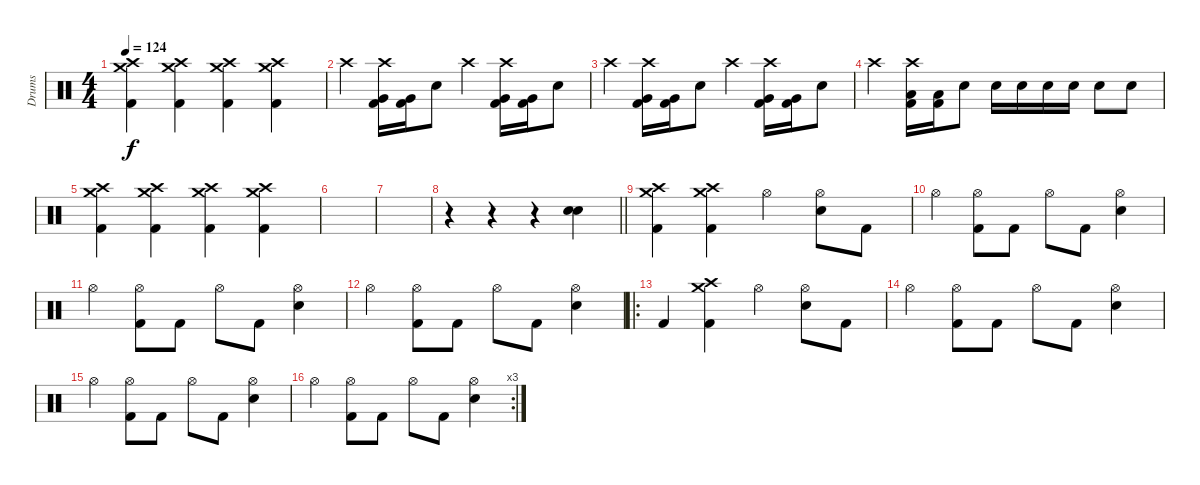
\track ("Drums" "Drums") {instrument percussion}
\staff {score}
\articulation defaults
\ts (4 4)
\tempo 124
\clef neutral
\ks c
("Crash medium (hit)" "Crash high (hit)" "Kick (hit) 2").4{dy f} ("Crash medium (hit)" "Crash high (hit)" "Kick (hit) 2").4 ("Crash medium (hit)" "Crash high (hit)" "Kick (hit) 2").4 ("Crash medium (hit)" "Crash high (hit)" "Kick (hit) 2").4 |
"Crash high (hit)".4 ("Kick (hit) 2" "Very Low Tom (hit)" "Crash high (hit)").16 ("Very Low Tom (hit)" "Kick (hit) 2").16 "Electric Snare (hit)".8 "Crash high (hit)".4 ("Kick (hit) 2" "Very Low Tom (hit)" "Crash high (hit)").16 ("Kick (hit) 2" "Very Low Tom (hit)").16 "Electric Snare (hit)".8 |
"Crash high (hit)".4 ("Kick (hit) 2" "Very Low Tom (hit)" "Crash high (hit)").16 ("Very Low Tom (hit)" "Kick (hit) 2").16 "Electric Snare (hit)".8 "Crash high (hit)".4 ("Kick (hit) 2" "Very Low Tom (hit)" "Crash high (hit)").16 ("Kick (hit) 2" "Very Low Tom (hit)").16 "Electric Snare (hit)".8 |
"Crash high (hit)".4 ("Kick (hit) 2" "Low Floor Tom (hit)" "Crash high (hit)").16 ("Low Floor Tom (hit)" "Kick (hit) 2").16 "Electric Snare (hit)".8 "Electric Snare (hit)".16 "Electric Snare (hit)".16 "Electric Snare (hit)".16 "Electric Snare (hit)".16 "Electric Snare (hit)".8 "Electric Snare (hit)".8 |
("Crash medium (hit)" "Crash high (hit)" "Kick (hit) 2").4 ("Crash medium (hit)" "Crash high (hit)" "Kick (hit) 2").4 ("Crash medium (hit)" "Crash high (hit)" "Kick (hit) 2").4 ("Crash medium (hit)" "Crash high (hit)" "Kick (hit) 2").4 |
|
|
\barLineRight lightlight
r.4 r.4 r.4 ("Electric Snare (hit)" "Electric Snare (hit)").4 |
("Crash medium (hit)" "Crash high (hit)" "Kick (hit) 2").4 ("Crash medium (hit)" "Crash high (hit)" "Kick (hit) 2").4 "Hi-Hat (open)".4 ("Hi-Hat (open)" "Electric Snare (hit)").8 "Kick (hit) 2".8 |
"Hi-Hat (open)".4 ("Hi-Hat (open)" "Kick (hit) 2").8 "Kick (hit) 2".8 "Hi-Hat (open)".8 "Kick (hit) 2".8 ("Hi-Hat (open)" "Electric Snare (hit)").4 |
"Hi-Hat (open)".4 ("Hi-Hat (open)" "Kick (hit) 2").8 "Kick (hit) 2".8 "Hi-Hat (open)".8 "Kick (hit) 2".8 ("Hi-Hat (open)" "Electric Snare (hit)").4 |
"Hi-Hat (open)".4 ("Hi-Hat (open)" "Kick (hit) 2").8 "Kick (hit) 2".8 "Hi-Hat (open)".8 "Kick (hit) 2".8 ("Hi-Hat (open)" "Electric Snare (hit)").4 |
\ro "Kick (hit) 2".4
("Crash medium (hit)" "Crash high (hit)" "Kick (hit) 2").4 "Hi-Hat (open)".4 ("Hi-Hat (open)" "Electric Snare (hit)").8 "Kick (hit) 2".8 |
"Hi-Hat (open)".4 ("Hi-Hat (open)" "Kick (hit) 2").8 "Kick (hit) 2".8 "Hi-Hat (open)".8 "Kick (hit) 2".8 ("Hi-Hat (open)" "Electric Snare (hit)").4 |
"Hi-Hat (open)".4 ("Hi-Hat (open)" "Kick (hit) 2").8 "Kick (hit) 2".8 "Hi-Hat (open)".8 "Kick (hit) 2".8 ("Hi-Hat (open)" "Electric Snare (hit)").4 |
\rc 3 "Hi-Hat (open)".4
("Hi-Hat (open)" "Kick (hit) 2").8 "Kick (hit) 2".8 "Hi-Hat (open)".8 "Kick (hit) 2".8 ("Hi-Hat (open)" "Electric Snare (hit)").4
